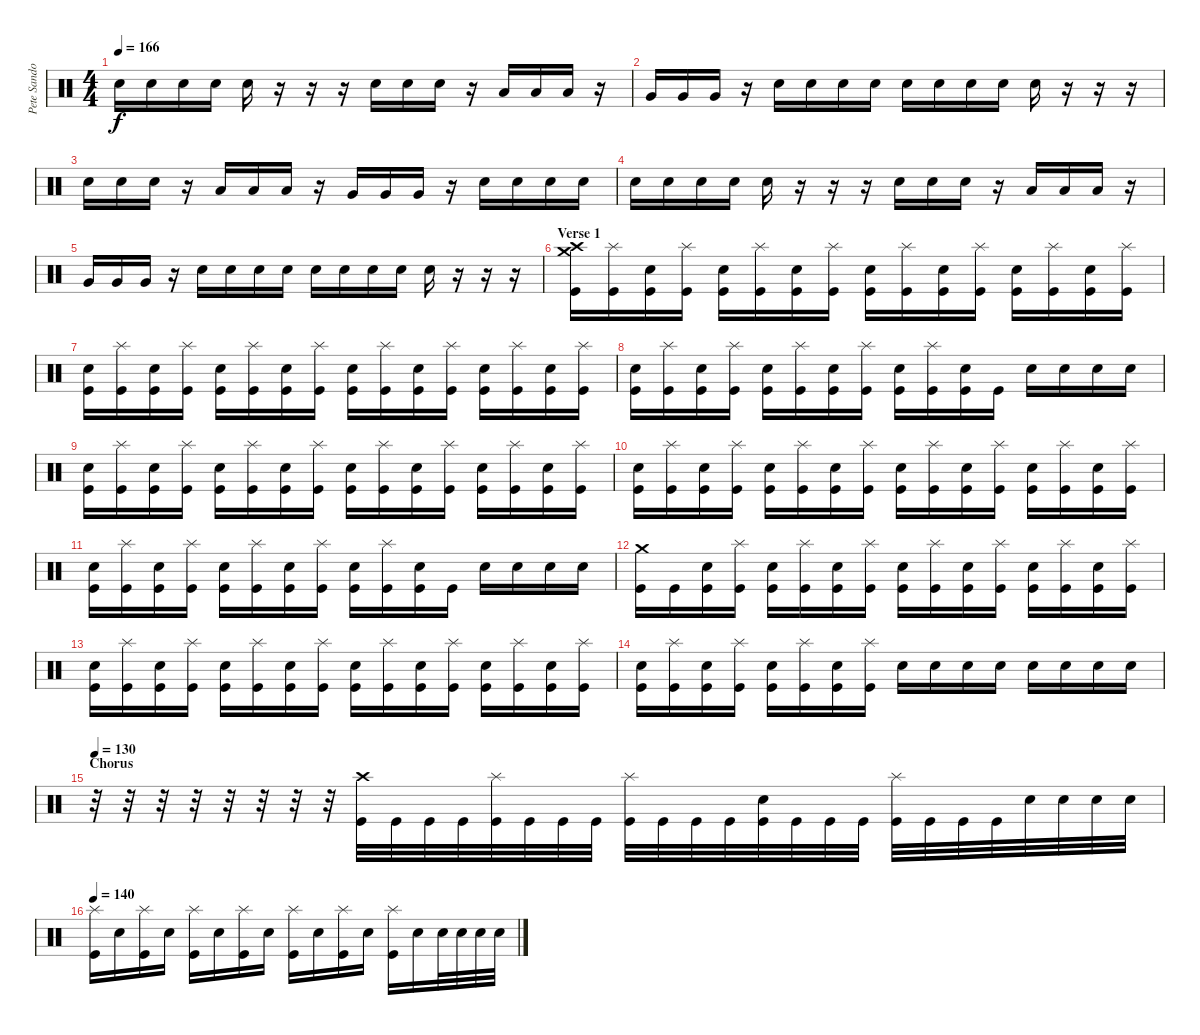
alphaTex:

\track ("Pete Sandoval" "Pete Sando") {instrument percussion}
\staff {score}
\articulation defaults
\ts (4 4)
\tempo 166
\clef neutral
\ks c "Electric Snare (hit)".16{dy f} "Electric Snare (hit)".16 "Electric Snare (hit)".16 "Electric Snare (hit)".16 "Electric Snare (hit)".16
r.16 r.16 r.16 "Electric Snare (hit)".16 "Electric Snare (hit)".16 "Electric Snare (hit)".16 r.16 "Low Tom (hit)".16 "Low Tom (hit)".16 "Low Tom (hit)".16 r.16 |
"Very Low Tom (hit)".16 "Very Low Tom (hit)".16 "Very Low Tom (hit)".16 r.16 "Electric Snare (hit)".16 "Electric Snare (hit)".16 "Electric Snare (hit)".16 "Electric Snare (hit)".16 "Electric Snare (hit)".16 "Electric Snare (hit)".16 "Electric Snare (hit)".16 "Electric Snare (hit)".16 "Electric Snare (hit)".16 r.16 r.16 r.16 |
"Electric Snare (hit)".16 "Electric Snare (hit)".16 "Electric Snare (hit)".16 r.16 "Low Tom (hit)".16 "Low Tom (hit)".16 "Low Tom (hit)".16 r.16 "Very Low Tom (hit)".16 "Very Low Tom (hit)".16 "Very Low Tom (hit)".16 r.16 "Electric Snare (hit)".16 "Electric Snare (hit)".16 "Electric Snare (hit)".16 "Electric Snare (hit)".16 |
"Electric Snare (hit)".16 "Electric Snare (hit)".16 "Electric Snare (hit)".16 "Electric Snare (hit)".16 "Electric Snare (hit)".16 r.16 r.16 r.16 "Electric Snare (hit)".16 "Electric Snare (hit)".16 "Electric Snare (hit)".16 r.16 "Low Tom (hit)".16 "Low Tom (hit)".16 "Low Tom (hit)".16 r.16 |
"Very Low Tom (hit)".16 "Very Low Tom (hit)".16 "Very Low Tom (hit)".16 r.16 "Electric Snare (hit)".16 "Electric Snare (hit)".16 "Electric Snare (hit)".16 "Electric Snare (hit)".16 "Electric Snare (hit)".16 "Electric Snare (hit)".16 "Electric Snare (hit)".16 "Electric Snare (hit)".16 "Electric Snare (hit)".16 r.16 r.16 r.16 |
\section ("" "Verse 1")
("Crash high (hit)" "Crash medium (hit)" "Kick (hit)").16 ("Splash (hit)" "Kick (hit)").16 ("Electric Snare (hit)" "Kick (hit)").16 ("Splash (hit)" "Kick (hit)").16 ("Electric Snare (hit)" "Kick (hit)").16 ("Splash (hit)" "Kick (hit)").16 ("Electric Snare (hit)" "Kick (hit)").16 ("Splash (hit)" "Kick (hit)").16 ("Electric Snare (hit)" "Kick (hit)").16 ("Splash (hit)" "Kick (hit)").16 ("Electric Snare (hit)" "Kick (hit)").16 ("Splash (hit)" "Kick (hit)").16 ("Electric Snare (hit)" "Kick (hit)").16 ("Splash (hit)" "Kick (hit)").16 ("Electric Snare (hit)" "Kick (hit)").16 ("Splash (hit)" "Kick (hit)").16 |
("Electric Snare (hit)" "Kick (hit)").16 ("Splash (hit)" "Kick (hit)").16 ("Electric Snare (hit)" "Kick (hit)").16 ("Splash (hit)" "Kick (hit)").16 ("Electric Snare (hit)" "Kick (hit)").16 ("Splash (hit)" "Kick (hit)").16 ("Electric Snare (hit)" "Kick (hit)").16 ("Splash (hit)" "Kick (hit)").16 ("Electric Snare (hit)" "Kick (hit)").16 ("Splash (hit)" "Kick (hit)").16 ("Electric Snare (hit)" "Kick (hit)").16 ("Splash (hit)" "Kick (hit)").16 ("Electric Snare (hit)" "Kick (hit)").16 ("Splash (hit)" "Kick (hit)").16 ("Electric Snare (hit)" "Kick (hit)").16 ("Splash (hit)" "Kick (hit)").16 |
("Electric Snare (hit)" "Kick (hit)").16 ("Splash (hit)" "Kick (hit)").16 ("Electric Snare (hit)" "Kick (hit)").16 ("Splash (hit)" "Kick (hit)").16 ("Electric Snare (hit)" "Kick (hit)").16 ("Splash (hit)" "Kick (hit)").16 ("Electric Snare (hit)" "Kick (hit)").16 ("Splash (hit)" "Kick (hit)").16 ("Electric Snare (hit)" "Kick (hit)").16 ("Splash (hit)" "Kick (hit)").16 ("Electric Snare (hit)" "Kick (hit)").16 "Kick (hit)".16 "Electric Snare (hit)".16 "Electric Snare (hit)".16 "Electric Snare (hit)".16 "Electric Snare (hit)".16 |
("Electric Snare (hit)" "Kick (hit)").16 ("Splash (hit)" "Kick (hit)").16 ("Electric Snare (hit)" "Kick (hit)").16 ("Splash (hit)" "Kick (hit)").16 ("Electric Snare (hit)" "Kick (hit)").16 ("Splash (hit)" "Kick (hit)").16 ("Electric Snare (hit)" "Kick (hit)").16 ("Splash (hit)" "Kick (hit)").16 ("Electric Snare (hit)" "Kick (hit)").16 ("Splash (hit)" "Kick (hit)").16 ("Electric Snare (hit)" "Kick (hit)").16 ("Splash (hit)" "Kick (hit)").16 ("Electric Snare (hit)" "Kick (hit)").16 ("Splash (hit)" "Kick (hit)").16 ("Electric Snare (hit)" "Kick (hit)").16 ("Splash (hit)" "Kick (hit)").16 |
("Electric Snare (hit)" "Kick (hit)").16 ("Splash (hit)" "Kick (hit)").16 ("Electric Snare (hit)" "Kick (hit)").16 ("Splash (hit)" "Kick (hit)").16 ("Electric Snare (hit)" "Kick (hit)").16 ("Splash (hit)" "Kick (hit)").16 ("Electric Snare (hit)" "Kick (hit)").16 ("Splash (hit)" "Kick (hit)").16 ("Electric Snare (hit)" "Kick (hit)").16 ("Splash (hit)" "Kick (hit)").16 ("Electric Snare (hit)" "Kick (hit)").16 ("Splash (hit)" "Kick (hit)").16 ("Electric Snare (hit)" "Kick (hit)").16 ("Splash (hit)" "Kick (hit)").16 ("Electric Snare (hit)" "Kick (hit)").16 ("Splash (hit)" "Kick (hit)").16 |
("Electric Snare (hit)" "Kick (hit)").16 ("Splash (hit)" "Kick (hit)").16 ("Electric Snare (hit)" "Kick (hit)").16 ("Splash (hit)" "Kick (hit)").16 ("Electric Snare (hit)" "Kick (hit)").16 ("Splash (hit)" "Kick (hit)").16 ("Electric Snare (hit)" "Kick (hit)").16 ("Splash (hit)" "Kick (hit)").16 ("Electric Snare (hit)" "Kick (hit)").16 ("Splash (hit)" "Kick (hit)").16 ("Electric Snare (hit)" "Kick (hit)").16 "Kick (hit)".16 "Electric Snare (hit)".16 "Electric Snare (hit)".16 "Electric Snare (hit)".16 "Electric Snare (hit)".16 |
("Crash medium (hit)" "Kick (hit)").16 "Kick (hit)".16 ("Electric Snare (hit)" "Kick (hit)").16 ("Splash (hit)" "Kick (hit)").16 ("Electric Snare (hit)" "Kick (hit)").16 ("Splash (hit)" "Kick (hit)").16 ("Electric Snare (hit)" "Kick (hit)").16 ("Splash (hit)" "Kick (hit)").16 ("Electric Snare (hit)" "Kick (hit)").16 ("Splash (hit)" "Kick (hit)").16 ("Electric Snare (hit)" "Kick (hit)").16 ("Splash (hit)" "Kick (hit)").16 ("Electric Snare (hit)" "Kick (hit)").16 ("Splash (hit)" "Kick (hit)").16 ("Electric Snare (hit)" "Kick (hit)").16 ("Splash (hit)" "Kick (hit)").16 |
("Electric Snare (hit)" "Kick (hit)").16 ("Splash (hit)" "Kick (hit)").16 ("Electric Snare (hit)" "Kick (hit)").16 ("Splash (hit)" "Kick (hit)").16 ("Electric Snare (hit)" "Kick (hit)").16 ("Splash (hit)" "Kick (hit)").16 ("Electric Snare (hit)" "Kick (hit)").16 ("Splash (hit)" "Kick (hit)").16 ("Electric Snare (hit)" "Kick (hit)").16 ("Splash (hit)" "Kick (hit)").16 ("Electric Snare (hit)" "Kick (hit)").16 ("Splash (hit)" "Kick (hit)").16 ("Electric Snare (hit)" "Kick (hit)").16 ("Splash (hit)" "Kick (hit)").16 ("Electric Snare (hit)" "Kick (hit)").16 ("Splash (hit)" "Kick (hit)").16 |
("Electric Snare (hit)" "Kick (hit)").16 ("Splash (hit)" "Kick (hit)").16 ("Electric Snare (hit)" "Kick (hit)").16 ("Splash (hit)" "Kick (hit)").16 ("Electric Snare (hit)" "Kick (hit)").16 ("Splash (hit)" "Kick (hit)").16 ("Electric Snare (hit)" "Kick (hit)").16 ("Splash (hit)" "Kick (hit)").16 "Electric Snare (hit)".16 "Electric Snare (hit)".16 "Electric Snare (hit)".16 "Electric Snare (hit)".16 "Electric Snare (hit)".16 "Electric Snare (hit)".16 "Electric Snare (hit)".16 "Electric Snare (hit)".16 |
\section ("" "Chorus")
\tempo 130
r.32 r.32 r.32 r.32 r.32 r.32 r.32 r.32 ("Crash high (hit)" "Kick (hit)").32 "Kick (hit)".32 "Kick (hit)".32 "Kick (hit)".32 ("Splash (hit)" "Kick (hit)").32 "Kick (hit)".32 "Kick (hit)".32 "Kick (hit)".32 ("Splash (hit)" "Kick (hit)").32 "Kick (hit)".32 "Kick (hit)".32 "Kick (hit)".32 ("Electric Snare (hit)" "Kick (hit)").32 "Kick (hit)".32 "Kick (hit)".32 "Kick (hit)".32 ("Splash (hit)" "Kick (hit)").32 "Kick (hit)".32 "Kick (hit)".32 "Kick (hit)".32 "Electric Snare (hit)".32 "Electric Snare (hit)".32 "Electric Snare (hit)".32 "Electric Snare (hit)".32 |
\tempo 140
("Splash (hit)" "Kick (hit)").16 "Electric Snare (hit)".16 ("Splash (hit)" "Kick (hit)").16 "Electric Snare (hit)".16 ("Splash (hit)" "Kick (hit)").16 "Electric Snare (hit)".16 ("Splash (hit)" "Kick (hit)").16 "Electric Snare (hit)".16 ("Splash (hit)" "Kick (hit)").16 "Electric Snare (hit)".16 ("Splash (hit)" "Kick (hit)").16 "Electric Snare (hit)".16 ("Splash (hit)" "Kick (hit)").16 "Electric Snare (hit)".16 "Electric Snare (hit)".32 "Electric Snare (hit)".32 "Electric Snare (hit)".32 "Electric Snare (hit)".32
